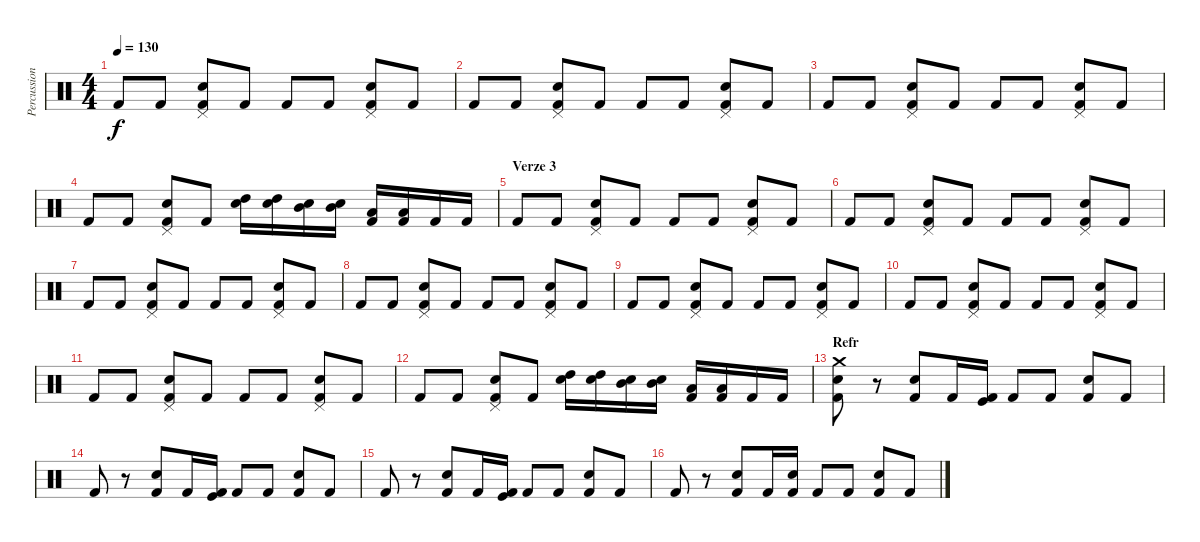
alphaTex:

\track ("Percussion" "Percussion") {instrument percussion}
\staff {score}
\articulation defaults
\ts (4 4)
\tempo 130
\clef neutral
\ks c "Kick (hit) 2".8{dy f} "Kick (hit) 2".8
("Snare (hit) 2" "Kick (hit) 2" "Pedal Hi-Hat (hit)").8 "Kick (hit) 2".8 "Kick (hit) 2".8 "Kick (hit) 2".8 ("Snare (hit) 2" "Kick (hit) 2" "Pedal Hi-Hat (hit)").8 "Kick (hit) 2".8 |
"Kick (hit) 2".8 "Kick (hit) 2".8 ("Snare (hit) 2" "Kick (hit) 2" "Pedal Hi-Hat (hit)").8 "Kick (hit) 2".8 "Kick (hit) 2".8 "Kick (hit) 2".8 ("Snare (hit) 2" "Kick (hit) 2" "Pedal Hi-Hat (hit)").8 "Kick (hit) 2".8 |
"Kick (hit) 2".8 "Kick (hit) 2".8 ("Snare (hit) 2" "Kick (hit) 2" "Pedal Hi-Hat (hit)").8 "Kick (hit) 2".8 "Kick (hit) 2".8 "Kick (hit) 2".8 ("Snare (hit) 2" "Kick (hit) 2" "Pedal Hi-Hat (hit)").8 "Kick (hit) 2".8 |
"Kick (hit) 2".8 "Kick (hit) 2".8 ("Snare (hit) 2" "Kick (hit) 2" "Pedal Hi-Hat (hit)").8 "Kick (hit) 2".8 ("Electric Snare (hit)" "High Tom (hit)").16 ("Electric Snare (hit)" "High Tom (hit)").16 ("Electric Snare (hit)" "Mid Tom (hit)").16 ("Electric Snare (hit)" "Mid Tom (hit)").16 ("Kick (hit) 2" "Low Tom (hit)").16 ("Kick (hit) 2" "Low Tom (hit)").16 "Kick (hit) 2".16 "Kick (hit) 2".16 |
\section ("" "Verze 3")
"Kick (hit) 2".8 "Kick (hit) 2".8 ("Snare (hit) 2" "Kick (hit) 2" "Pedal Hi-Hat (hit)").8 "Kick (hit) 2".8 "Kick (hit) 2".8 "Kick (hit) 2".8 ("Snare (hit) 2" "Kick (hit) 2" "Pedal Hi-Hat (hit)").8 "Kick (hit) 2".8 |
"Kick (hit) 2".8 "Kick (hit) 2".8 ("Snare (hit) 2" "Kick (hit) 2" "Pedal Hi-Hat (hit)").8 "Kick (hit) 2".8 "Kick (hit) 2".8 "Kick (hit) 2".8 ("Snare (hit) 2" "Kick (hit) 2" "Pedal Hi-Hat (hit)").8 "Kick (hit) 2".8 |
"Kick (hit) 2".8 "Kick (hit) 2".8 ("Snare (hit) 2" "Kick (hit) 2" "Pedal Hi-Hat (hit)").8 "Kick (hit) 2".8 "Kick (hit) 2".8 "Kick (hit) 2".8 ("Snare (hit) 2" "Kick (hit) 2" "Pedal Hi-Hat (hit)").8 "Kick (hit) 2".8 |
"Kick (hit) 2".8 "Kick (hit) 2".8 ("Snare (hit) 2" "Kick (hit) 2" "Pedal Hi-Hat (hit)").8 "Kick (hit) 2".8 "Kick (hit) 2".8 "Kick (hit) 2".8 ("Snare (hit) 2" "Kick (hit) 2" "Pedal Hi-Hat (hit)").8 "Kick (hit) 2".8 |
"Kick (hit) 2".8 "Kick (hit) 2".8 ("Snare (hit) 2" "Kick (hit) 2" "Pedal Hi-Hat (hit)").8 "Kick (hit) 2".8 "Kick (hit) 2".8 "Kick (hit) 2".8 ("Snare (hit) 2" "Kick (hit) 2" "Pedal Hi-Hat (hit)").8 "Kick (hit) 2".8 |
"Kick (hit) 2".8 "Kick (hit) 2".8 ("Snare (hit) 2" "Kick (hit) 2" "Pedal Hi-Hat (hit)").8 "Kick (hit) 2".8 "Kick (hit) 2".8 "Kick (hit) 2".8 ("Snare (hit) 2" "Kick (hit) 2" "Pedal Hi-Hat (hit)").8 "Kick (hit) 2".8 |
"Kick (hit) 2".8 "Kick (hit) 2".8 ("Snare (hit) 2" "Kick (hit) 2" "Pedal Hi-Hat (hit)").8 "Kick (hit) 2".8 "Kick (hit) 2".8 "Kick (hit) 2".8 ("Snare (hit) 2" "Kick (hit) 2" "Pedal Hi-Hat (hit)").8 "Kick (hit) 2".8 |
"Kick (hit) 2".8 "Kick (hit) 2".8 ("Snare (hit) 2" "Kick (hit) 2" "Pedal Hi-Hat (hit)").8 "Kick (hit) 2".8 ("Electric Snare (hit)" "High Tom (hit)").16 ("Electric Snare (hit)" "High Tom (hit)").16 ("Electric Snare (hit)" "Mid Tom (hit)").16 ("Electric Snare (hit)" "Mid Tom (hit)").16 ("Kick (hit) 2" "Low Tom (hit)").16 ("Kick (hit) 2" "Low Tom (hit)").16 "Kick (hit) 2".16 "Kick (hit) 2".16 |
\section ("" "Refr")
("Kick (hit) 2" "Snare (hit) 2" "Crash medium (hit)").8 r.8 ("Electric Snare (hit)" "Kick (hit) 2").8 "Kick (hit) 2".16 ("Kick (hit) 2" "Kick (hit)").16 "Kick (hit) 2".8 "Kick (hit) 2".8 ("Snare (hit) 2" "Kick (hit) 2").8 "Kick (hit) 2".8 |
"Kick (hit) 2".8 r.8 ("Electric Snare (hit)" "Kick (hit) 2").8 "Kick (hit) 2".16 ("Kick (hit) 2" "Kick (hit)").16 "Kick (hit) 2".8 "Kick (hit) 2".8 ("Snare (hit) 2" "Kick (hit) 2").8 "Kick (hit) 2".8 |
"Kick (hit) 2".8 r.8 ("Electric Snare (hit)" "Kick (hit) 2").8 "Kick (hit) 2".16 ("Kick (hit) 2" "Kick (hit)").16 "Kick (hit) 2".8 "Kick (hit) 2".8 ("Snare (hit) 2" "Kick (hit) 2").8 "Kick (hit) 2".8 |
"Kick (hit) 2".8 r.8 ("Electric Snare (hit)" "Kick (hit) 2").8 "Kick (hit) 2".16 ("Kick (hit) 2" "Snare (hit) 2").16 "Kick (hit) 2".8 "Kick (hit) 2".8 ("Snare (hit) 2" "Kick (hit) 2").8 "Kick (hit) 2".8
